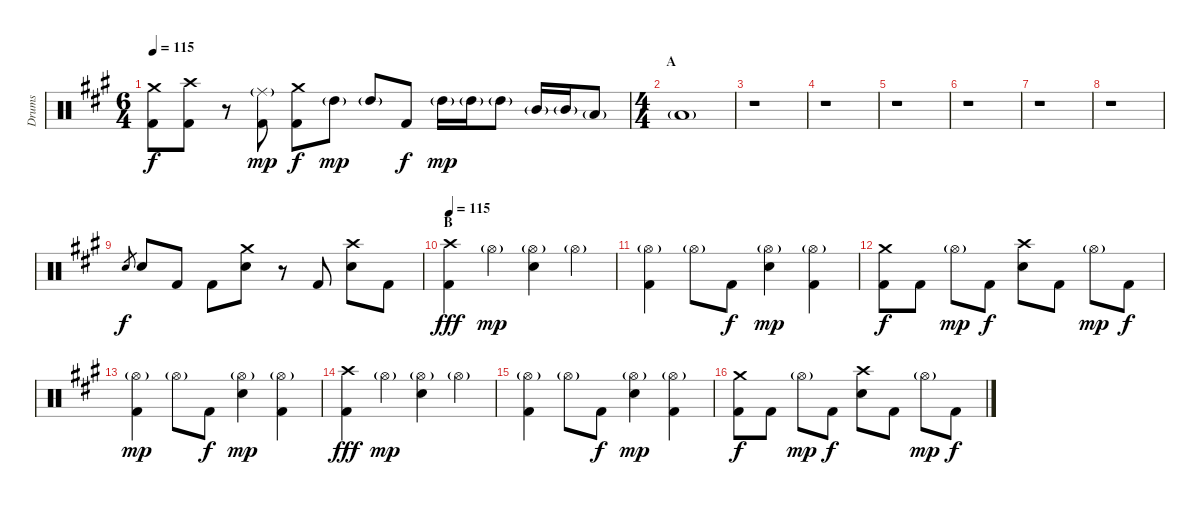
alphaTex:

\track ("Drums" "Drums") {instrument percussion}
\staff {score}
\articulation defaults
\ts (6 4)
\tempo 115
\clef neutral
\ks a
("Crash medium (hit)" "Kick (hit) 2").8{dy f} ("Crash high (hit)" "Kick (hit) 2").8 r.8 ("Ride (middle)"{g} "Kick (hit) 2").8{dy mp} ("Crash medium (hit)" "Kick (hit) 2").8{dy f} "High Tom (hit)"{g}.8{dy mp} "High Tom (hit)"{g}.8 "Kick (hit) 2".8{dy f} "High Tom (hit)"{g}.16{dy mp} "High Tom (hit)"{g}.16 "High Tom (hit)"{g}.8 "Mid Tom (hit)"{g}.16 "Mid Tom (hit)"{g}.16 "Low Tom (hit)"{g}.8 |
\ts (4 4)
\section ("" "A")
"Low Tom (hit)"{g}.1 |
r.1 |
r.1 |
r.1 |
r.1 |
r.1 |
r.1 |
"Snare (hit) 2".8{gr dy f} "Snare (hit) 2".8 "Kick (hit) 2".8 "Kick (hit) 2".8 ("Crash medium (hit)" "Snare (hit) 2").8 r.8 "Kick (hit) 2".8 ("Crash high (hit)" "Snare (hit) 2").8 "Kick (hit) 2".8 |
\section ("" "B")
\tempo 115
("Crash high (hit)" "Kick (hit) 2").4{dy fff} "Hi-Hat (open)"{g}.4{dy mp} ("Hi-Hat (open)"{g} "Snare (hit) 2").4 "Hi-Hat (open)"{g}.4 |
("Hi-Hat (open)"{g} "Kick (hit) 2").4 "Hi-Hat (open)"{g}.8 "Kick (hit) 2".8{dy f} ("Hi-Hat (open)"{g} "Snare (hit) 2").4{dy mp} ("Hi-Hat (open)"{g} "Kick (hit) 2").4 |
("Crash medium (hit)" "Kick (hit) 2").8{dy f} "Kick (hit) 2".8 "Hi-Hat (open)"{g}.8{dy mp} "Kick (hit) 2".8{dy f} ("Crash high (hit)" "Snare (hit) 2").8 "Kick (hit) 2".8 "Hi-Hat (open)"{g}.8{dy mp} "Kick (hit) 2".8{dy f} |
("Hi-Hat (open)"{g} "Kick (hit) 2").4{dy mp} "Hi-Hat (open)"{g}.8 "Kick (hit) 2".8{dy f} ("Hi-Hat (open)"{g} "Snare (hit) 2").4{dy mp} ("Hi-Hat (open)"{g} "Kick (hit) 2").4 |
("Crash high (hit)" "Kick (hit) 2").4{dy fff} "Hi-Hat (open)"{g}.4{dy mp} ("Hi-Hat (open)"{g} "Snare (hit) 2").4 "Hi-Hat (open)"{g}.4 |
("Hi-Hat (open)"{g} "Kick (hit) 2").4 "Hi-Hat (open)"{g}.8 "Kick (hit) 2".8{dy f} ("Hi-Hat (open)"{g} "Snare (hit) 2").4{dy mp} ("Hi-Hat (open)"{g} "Kick (hit) 2").4 |
("Crash medium (hit)" "Kick (hit) 2").8{dy f} "Kick (hit) 2".8 "Hi-Hat (open)"{g}.8{dy mp} "Kick (hit) 2".8{dy f} ("Crash high (hit)" "Snare (hit) 2").8 "Kick (hit) 2".8 "Hi-Hat (open)"{g}.8{dy mp} "Kick (hit) 2".8{dy f}
